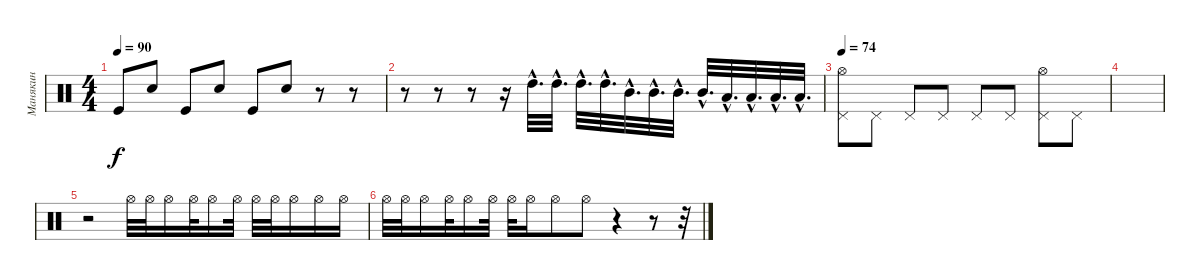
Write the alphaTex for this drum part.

\track ("Манякин" "Манякин") {instrument percussion}
\staff {score}
\articulation defaults
\ts (4 4)
\tempo 90
\clef neutral
\ks c "Kick (hit)".8{dy f} "Electric Snare (hit)".8 "Kick (hit)".8 "Electric Snare (hit)".8 "Kick (hit)".8 "Electric Snare (hit)".8
r.8 r.8 |
r.8{volume 15} r.8 r.8 r.16 "High Tom (hit)"{hac}.32{d} "High Tom (hit)"{hac}.32{d} "High Tom (hit)"{hac}.32{d} "High Tom (hit)"{hac}.32{d} "Mid Tom (hit)"{hac}.32{d} "Mid Tom (hit)"{hac}.32{d} "Mid Tom (hit)"{hac}.32{d} "Mid Tom (hit)"{hac}.32{d} "Low Tom (hit)"{hac}.32{d} "Low Tom (hit)"{hac}.32{d} "Low Tom (hit)"{hac}.32{d} "Low Tom (hit)"{hac}.32{d} |
\tempo 74
("Pedal Hi-Hat (hit)" "Hi-Hat (open)").8{volume 13} "Pedal Hi-Hat (hit)".8 "Pedal Hi-Hat (hit)".8 "Pedal Hi-Hat (hit)".8 "Pedal Hi-Hat (hit)".8 "Pedal Hi-Hat (hit)".8 ("Pedal Hi-Hat (hit)" "Hi-Hat (open)").8 "Pedal Hi-Hat (hit)".8 |
|
r.2 "Hi-Hat (open)".32 "Hi-Hat (open)".32 "Hi-Hat (open)".16 "Hi-Hat (open)".32 "Hi-Hat (open)".16 "Hi-Hat (open)".32 "Hi-Hat (open)".32 "Hi-Hat (open)".32 "Hi-Hat (open)".16 "Hi-Hat (open)".16 "Hi-Hat (open)".16 |
"Hi-Hat (open)".32 "Hi-Hat (open)".32 "Hi-Hat (open)".16 "Hi-Hat (open)".32 "Hi-Hat (open)".16 "Hi-Hat (open)".32 "Hi-Hat (open)".32 "Hi-Hat (open)".16 "Hi-Hat (open)".8 "Hi-Hat (open)".8 r.4 r.8 r.32
